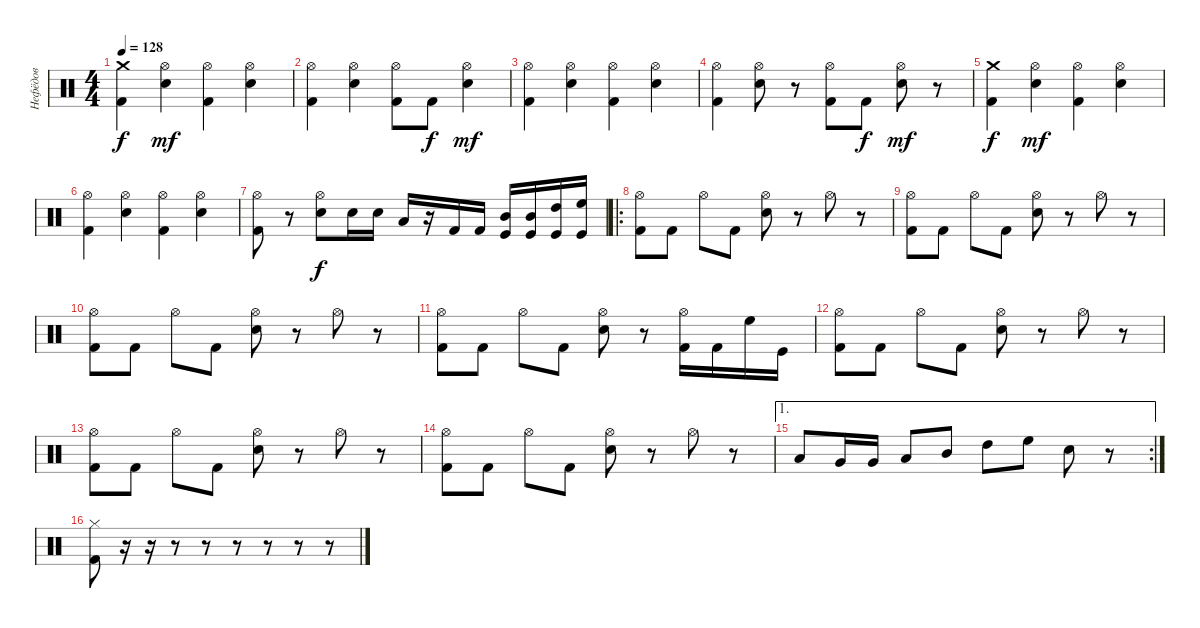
\track ("Нефёдов" "Нефёдов") {instrument percussion}
\staff {score}
\articulation defaults
\ts (4 4)
\tempo 128
\clef neutral
\ks c
("Crash medium (hit)" "Kick (hit) 2").4{dy f} ("Hi-Hat (open)" "Snare (hit) 2").4{dy mf} ("Hi-Hat (open)" "Kick (hit) 2").4 ("Hi-Hat (open)" "Snare (hit) 2").4 |
("Hi-Hat (open)" "Kick (hit) 2").4 ("Hi-Hat (open)" "Snare (hit) 2").4 ("Hi-Hat (open)" "Kick (hit) 2").8 "Kick (hit) 2".8{dy f} ("Hi-Hat (open)" "Snare (hit) 2").4{dy mf} |
("Hi-Hat (open)" "Kick (hit) 2").4 ("Hi-Hat (open)" "Snare (hit) 2").4 ("Hi-Hat (open)" "Kick (hit) 2").4 ("Hi-Hat (open)" "Snare (hit) 2").4 |
("Hi-Hat (open)" "Kick (hit) 2").4 ("Hi-Hat (open)" "Snare (hit) 2").8 r.8 ("Hi-Hat (open)" "Kick (hit) 2").8 "Kick (hit) 2".8{dy f} ("Hi-Hat (open)" "Snare (hit) 2").8{dy mf} r.8 |
("Crash medium (hit)" "Kick (hit) 2").4{dy f} ("Hi-Hat (open)" "Snare (hit) 2").4{dy mf} ("Hi-Hat (open)" "Kick (hit) 2").4 ("Hi-Hat (open)" "Snare (hit) 2").4 |
("Hi-Hat (open)" "Kick (hit) 2").4 ("Hi-Hat (open)" "Snare (hit) 2").4 ("Hi-Hat (open)" "Kick (hit) 2").4 ("Hi-Hat (open)" "Snare (hit) 2").4 |
("Hi-Hat (open)" "Kick (hit) 2").8 r.8 ("Hi-Hat (open)" "Snare (hit) 2").8{dy f} "Snare (hit) 2".16 "Snare (hit) 2".16 "Low Tom (hit)".16 r.16 "Kick (hit) 2".16 "Kick (hit) 2".16 ("Kick (hit)" "Mid Tom (hit)").16 ("Kick (hit)" "Mid Tom (hit)").16 ("Kick (hit)" "High Tom (hit)").16 ("Kick (hit)" "High Floor Tom (hit)").16 |
\ro
("Hi-Hat (open)" "Kick (hit) 2").8 "Kick (hit) 2".8 "Hi-Hat (open)".8 "Kick (hit) 2".8 ("Hi-Hat (open)" "Snare (hit) 2").8 r.8 "Hi-Hat (open)".8 r.8 |
("Hi-Hat (open)" "Kick (hit) 2").8 "Kick (hit) 2".8 "Hi-Hat (open)".8 "Kick (hit) 2".8 ("Hi-Hat (open)" "Snare (hit) 2").8 r.8 "Hi-Hat (open)".8 r.8 |
("Hi-Hat (open)" "Kick (hit) 2").8 "Kick (hit) 2".8 "Hi-Hat (open)".8 "Kick (hit) 2".8 ("Hi-Hat (open)" "Snare (hit) 2").8 r.8 "Hi-Hat (open)".8 r.8 |
("Hi-Hat (open)" "Kick (hit) 2").8 "Kick (hit) 2".8 "Hi-Hat (open)".8 "Kick (hit) 2".8 ("Hi-Hat (open)" "Snare (hit) 2").8 r.8 ("Hi-Hat (open)" "Kick (hit) 2").16 "Kick (hit) 2".16 "High Floor Tom (hit)".16 "Kick (hit)".16 |
("Hi-Hat (open)" "Kick (hit) 2").8 "Kick (hit) 2".8 "Hi-Hat (open)".8 "Kick (hit) 2".8 ("Hi-Hat (open)" "Snare (hit) 2").8 r.8 "Hi-Hat (open)".8 r.8 |
("Hi-Hat (open)" "Kick (hit) 2").8 "Kick (hit) 2".8 "Hi-Hat (open)".8 "Kick (hit) 2".8 ("Hi-Hat (open)" "Snare (hit) 2").8 r.8 "Hi-Hat (open)".8 r.8 |
("Hi-Hat (open)" "Kick (hit) 2").8 "Kick (hit) 2".8 "Hi-Hat (open)".8 "Kick (hit) 2".8 ("Hi-Hat (open)" "Snare (hit) 2").8 r.8 "Hi-Hat (open)".8 r.8 |
\ae 1
\rc 2 "Low Floor Tom (hit)".8 "Very Low Tom (hit)".16 "Very Low Tom (hit)".16 "Low Tom (hit)".8 "Mid Tom (hit)".8 "High Tom (hit)".8 "High Floor Tom (hit)".8 "Snare (hit) 2".8
r.8 |
("Hi-Hat (closed)" "Kick (hit) 2").8 r.16 r.16 r.8 r.8 r.8 r.8 r.8 r.8
